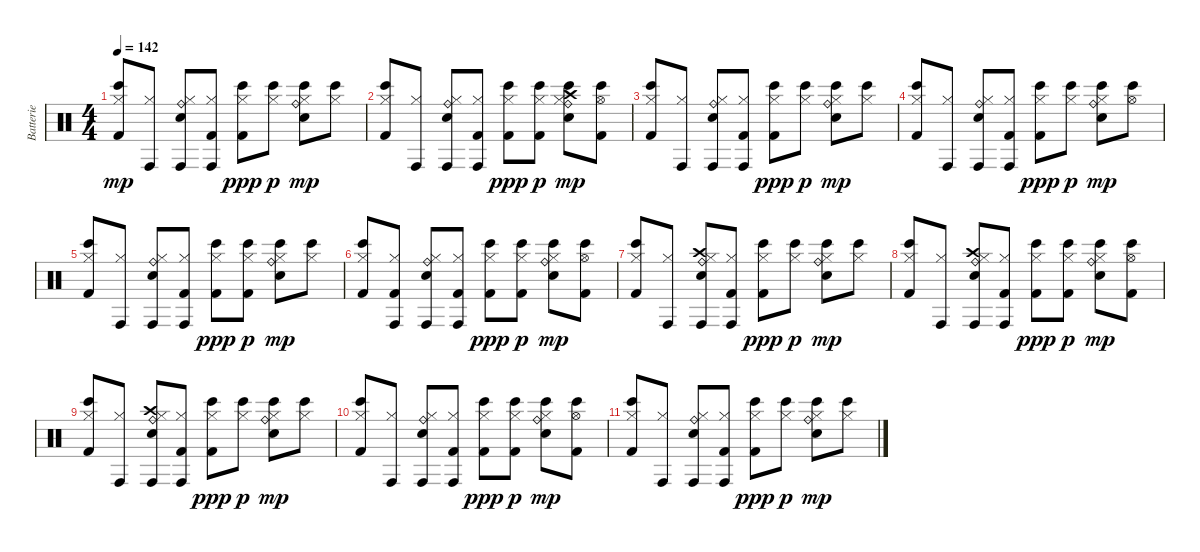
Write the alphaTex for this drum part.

\track ("Batterie" "Batterie") {instrument percussion}
\staff {score}
\articulation defaults
\ts (4 4)
\tempo 142
\clef neutral
\ks c
("Kick (hit) 2" "Hi-Hat (closed)" "Bongo High (hit)").8{dy mp} ("Hi-Hat (closed)" "Conga high (hit)").8 ("Electric Snare (hit)" "Hi-Hat (closed)" "Ride (bell)" "Conga high (hit)").8 ("Kick (hit) 2" "Hi-Hat (closed)" "Conga high (hit)").8 ("Kick (hit) 2" "Hi-Hat (closed)" "Bongo High (hit)").8{dy ppp} ("Hi-Hat (closed)" "Bongo High (hit)").8{dy p} ("Electric Snare (hit)" "Hi-Hat (closed)" "Ride (bell)" "Bongo High (hit)").8{dy mp} ("Hi-Hat (closed)" "Bongo High (hit)").8 |
("Kick (hit) 2" "Hi-Hat (closed)" "Bongo High (hit)").8 ("Hi-Hat (closed)" "Conga high (hit)").8 ("Electric Snare (hit)" "Hi-Hat (closed)" "Ride (bell)" "Conga high (hit)").8 ("Kick (hit) 2" "Hi-Hat (closed)" "Conga high (hit)").8 ("Kick (hit) 2" "Hi-Hat (closed)" "Bongo High (hit)").8{dy ppp} ("Kick (hit) 2" "Hi-Hat (closed)" "Bongo High (hit)").8{dy p} ("Electric Snare (hit)" "Hi-Hat (closed)" "Ride (bell)" "Crash high (hit)" "Bongo High (hit)").8{dy mp} ("Kick (hit) 2" "Hi-Hat (open)" "Bongo High (hit)").8 |
("Kick (hit) 2" "Hi-Hat (closed)" "Bongo High (hit)").8 ("Hi-Hat (closed)" "Conga high (hit)").8 ("Electric Snare (hit)" "Hi-Hat (closed)" "Ride (bell)" "Conga high (hit)").8 ("Kick (hit) 2" "Hi-Hat (closed)" "Conga high (hit)").8 ("Kick (hit) 2" "Hi-Hat (closed)" "Bongo High (hit)").8{dy ppp} ("Hi-Hat (closed)" "Bongo High (hit)").8{dy p} ("Electric Snare (hit)" "Hi-Hat (closed)" "Ride (bell)" "Bongo High (hit)").8{dy mp} ("Hi-Hat (closed)" "Bongo High (hit)").8 |
("Kick (hit) 2" "Hi-Hat (closed)" "Bongo High (hit)").8 ("Hi-Hat (closed)" "Conga high (hit)").8 ("Electric Snare (hit)" "Hi-Hat (closed)" "Ride (bell)" "Conga high (hit)").8 ("Kick (hit) 2" "Hi-Hat (closed)" "Conga high (hit)").8 ("Kick (hit) 2" "Hi-Hat (closed)" "Bongo High (hit)").8{dy ppp} ("Hi-Hat (closed)" "Bongo High (hit)").8{dy p} ("Electric Snare (hit)" "Hi-Hat (closed)" "Ride (bell)" "Bongo High (hit)").8{dy mp} ("Hi-Hat (open)" "Bongo High (hit)").8 |
("Kick (hit) 2" "Hi-Hat (closed)" "Bongo High (hit)").8 ("Hi-Hat (closed)" "Conga high (hit)").8 ("Electric Snare (hit)" "Hi-Hat (closed)" "Ride (bell)" "Conga high (hit)").8 ("Kick (hit) 2" "Hi-Hat (closed)" "Conga high (hit)").8 ("Kick (hit) 2" "Hi-Hat (closed)" "Bongo High (hit)").8{dy ppp} ("Kick (hit) 2" "Hi-Hat (closed)" "Bongo High (hit)").8{dy p} ("Electric Snare (hit)" "Hi-Hat (closed)" "Ride (bell)" "Bongo High (hit)").8{dy mp} ("Hi-Hat (closed)" "Bongo High (hit)").8 |
("Kick (hit) 2" "Hi-Hat (closed)" "Bongo High (hit)").8 ("Kick (hit) 2" "Hi-Hat (closed)" "Conga high (hit)").8 ("Electric Snare (hit)" "Hi-Hat (closed)" "Ride (bell)" "Conga high (hit)").8 ("Kick (hit) 2" "Hi-Hat (closed)" "Conga high (hit)").8 ("Kick (hit) 2" "Hi-Hat (closed)" "Bongo High (hit)").8{dy ppp} ("Kick (hit) 2" "Hi-Hat (closed)" "Bongo High (hit)").8{dy p} ("Electric Snare (hit)" "Hi-Hat (closed)" "Ride (bell)" "Bongo High (hit)").8{dy mp} ("Kick (hit) 2" "Hi-Hat (open)" "Bongo High (hit)").8 |
("Kick (hit) 2" "Hi-Hat (closed)" "Bongo High (hit)").8{volume 15} ("Hi-Hat (closed)" "Conga high (hit)").8{volume 14} ("Electric Snare (hit)" "Hi-Hat (closed)" "Ride (bell)" "Crash high (hit)" "Conga high (hit)").8{volume 14} ("Kick (hit) 2" "Hi-Hat (closed)" "Conga high (hit)").8{volume 14} ("Kick (hit) 2" "Hi-Hat (closed)" "Bongo High (hit)").8{dy ppp volume 13} ("Hi-Hat (closed)" "Bongo High (hit)").8{dy p volume 13} ("Electric Snare (hit)" "Hi-Hat (closed)" "Ride (bell)" "Bongo High (hit)").8{dy mp volume 12} ("Hi-Hat (closed)" "Bongo High (hit)").8{volume 12} |
("Kick (hit) 2" "Hi-Hat (closed)" "Bongo High (hit)").8{volume 11} ("Hi-Hat (closed)" "Conga high (hit)").8{volume 11} ("Electric Snare (hit)" "Hi-Hat (closed)" "Ride (bell)" "Crash high (hit)" "Conga high (hit)").8{volume 10} ("Kick (hit) 2" "Hi-Hat (closed)" "Conga high (hit)").8{volume 10} ("Kick (hit) 2" "Hi-Hat (closed)" "Bongo High (hit)").8{dy ppp volume 9} ("Kick (hit) 2" "Hi-Hat (closed)" "Bongo High (hit)").8{dy p volume 9} ("Electric Snare (hit)" "Hi-Hat (closed)" "Ride (bell)" "Bongo High (hit)").8{dy mp volume 8} ("Kick (hit) 2" "Hi-Hat (open)" "Bongo High (hit)").8{volume 8} |
("Kick (hit) 2" "Hi-Hat (closed)" "Bongo High (hit)").8{volume 8} ("Hi-Hat (closed)" "Conga high (hit)").8{volume 7} ("Electric Snare (hit)" "Hi-Hat (closed)" "Ride (bell)" "Crash high (hit)" "Conga high (hit)").8{volume 7} ("Kick (hit) 2" "Hi-Hat (closed)" "Conga high (hit)").8{volume 6} ("Kick (hit) 2" "Hi-Hat (closed)" "Bongo High (hit)").8{dy ppp volume 6} ("Hi-Hat (closed)" "Bongo High (hit)").8{dy p volume 5} ("Electric Snare (hit)" "Hi-Hat (closed)" "Ride (bell)" "Bongo High (hit)").8{dy mp volume 5} ("Hi-Hat (closed)" "Bongo High (hit)").8{volume 4} |
("Kick (hit) 2" "Hi-Hat (closed)" "Bongo High (hit)").8{volume 4} ("Hi-Hat (closed)" "Conga high (hit)").8{volume 3} ("Electric Snare (hit)" "Hi-Hat (closed)" "Ride (bell)" "Conga high (hit)").8{volume 3} ("Kick (hit) 2" "Hi-Hat (closed)" "Conga high (hit)").8{volume 2} ("Kick (hit) 2" "Hi-Hat (closed)" "Bongo High (hit)").8{dy ppp volume 2} ("Kick (hit) 2" "Hi-Hat (closed)" "Bongo High (hit)").8{dy p volume 1} ("Electric Snare (hit)" "Hi-Hat (closed)" "Ride (bell)" "Bongo High (hit)").8{dy mp volume 1} ("Kick (hit) 2" "Hi-Hat (open)" "Bongo High (hit)").8{volume 0} |
("Kick (hit) 2" "Hi-Hat (closed)" "Bongo High (hit)").8{volume 0} ("Hi-Hat (closed)" "Conga high (hit)").8 ("Electric Snare (hit)" "Hi-Hat (closed)" "Ride (bell)" "Conga high (hit)").8 ("Kick (hit) 2" "Hi-Hat (closed)" "Conga high (hit)").8 ("Kick (hit) 2" "Hi-Hat (closed)" "Bongo High (hit)").8{dy ppp} ("Hi-Hat (closed)" "Bongo High (hit)").8{dy p} ("Electric Snare (hit)" "Hi-Hat (closed)" "Ride (bell)" "Bongo High (hit)").8{dy mp} ("Hi-Hat (closed)" "Bongo High (hit)").8
